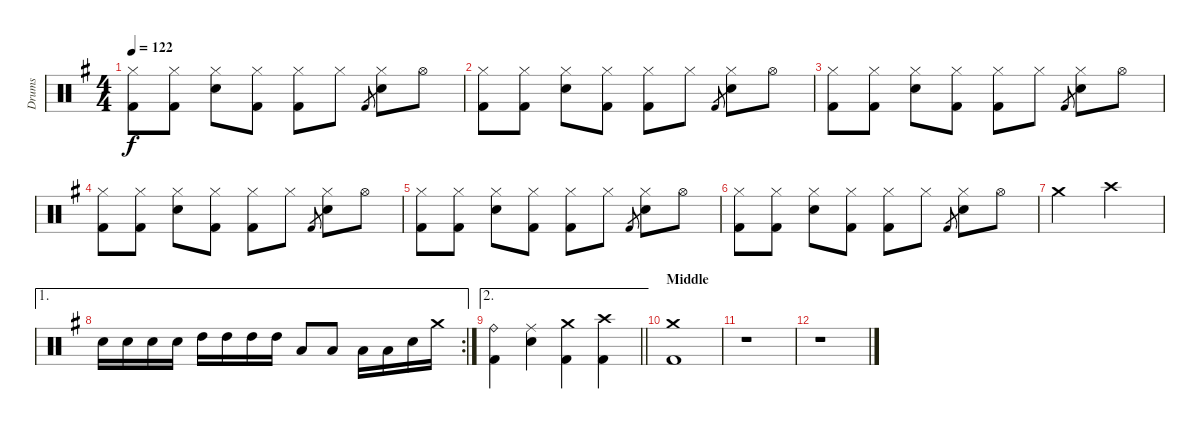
\track ("Drums" "Drums") {instrument percussion}
\staff {score}
\articulation defaults
\ts (4 4)
\tempo 122
\clef neutral
\ks g
("Hi-Hat (closed)" "Kick (hit) 2").8{dy f} ("Hi-Hat (closed)" "Kick (hit) 2").8 ("Hi-Hat (closed)" "Electric Snare (hit)").8 ("Hi-Hat (closed)" "Kick (hit) 2").8 ("Hi-Hat (closed)" "Kick (hit) 2").8 "Hi-Hat (closed)".8 "Kick (hit) 2".8{gr} ("Hi-Hat (closed)" "Electric Snare (hit)").8 "Hi-Hat (open)".8 |
("Hi-Hat (closed)" "Kick (hit) 2").8 ("Hi-Hat (closed)" "Kick (hit) 2").8 ("Hi-Hat (closed)" "Electric Snare (hit)").8 ("Hi-Hat (closed)" "Kick (hit) 2").8 ("Hi-Hat (closed)" "Kick (hit) 2").8 "Hi-Hat (closed)".8 "Kick (hit) 2".8{gr} ("Hi-Hat (closed)" "Electric Snare (hit)").8 "Hi-Hat (open)".8 |
("Hi-Hat (closed)" "Kick (hit) 2").8 ("Hi-Hat (closed)" "Kick (hit) 2").8 ("Hi-Hat (closed)" "Electric Snare (hit)").8 ("Hi-Hat (closed)" "Kick (hit) 2").8 ("Hi-Hat (closed)" "Kick (hit) 2").8 "Hi-Hat (closed)".8 "Kick (hit) 2".8{gr} ("Hi-Hat (closed)" "Electric Snare (hit)").8 "Hi-Hat (open)".8 |
("Hi-Hat (closed)" "Kick (hit) 2").8 ("Hi-Hat (closed)" "Kick (hit) 2").8 ("Hi-Hat (closed)" "Electric Snare (hit)").8 ("Hi-Hat (closed)" "Kick (hit) 2").8 ("Hi-Hat (closed)" "Kick (hit) 2").8 "Hi-Hat (closed)".8 "Kick (hit) 2".8{gr} ("Hi-Hat (closed)" "Electric Snare (hit)").8 "Hi-Hat (open)".8 |
("Hi-Hat (closed)" "Kick (hit) 2").8 ("Hi-Hat (closed)" "Kick (hit) 2").8 ("Hi-Hat (closed)" "Electric Snare (hit)").8 ("Hi-Hat (closed)" "Kick (hit) 2").8 ("Hi-Hat (closed)" "Kick (hit) 2").8 "Hi-Hat (closed)".8 "Kick (hit) 2".8{gr} ("Hi-Hat (closed)" "Electric Snare (hit)").8 "Hi-Hat (open)".8 |
("Hi-Hat (closed)" "Kick (hit) 2").8 ("Hi-Hat (closed)" "Kick (hit) 2").8 ("Hi-Hat (closed)" "Electric Snare (hit)").8 ("Hi-Hat (closed)" "Kick (hit) 2").8 ("Hi-Hat (closed)" "Kick (hit) 2").8 "Hi-Hat (closed)".8 "Kick (hit) 2".8{gr} ("Hi-Hat (closed)" "Electric Snare (hit)").8 "Hi-Hat (open)".8 |
"Crash medium (hit)".2 "Crash high (hit)".2 |
\ae 1
\rc 2 "Electric Snare (hit)".16 "Electric Snare (hit)".16 "Electric Snare (hit)".16 "Electric Snare (hit)".16 "High Tom (hit)".16 "High Tom (hit)".16 "High Tom (hit)".16 "High Tom (hit)".16 "Low Tom (hit)".8 "Low Tom (hit)".8 "Low Tom (hit)".16 "Low Tom (hit)".16 "Electric Snare (hit)".16 "Crash medium (hit)".16
|
\ae 2
\barLineRight lightlight
("Ride (bell)" "Kick (hit) 2").4 ("Ride (middle)" "Snare (hit) 2").4 ("Crash medium (hit)" "Kick (hit) 2").4 ("Crash high (hit)" "Kick (hit) 2").4 |
\section ("" "Middle")
("Crash medium (hit)" "Kick (hit) 2").1 |
r.1 |
r.1
